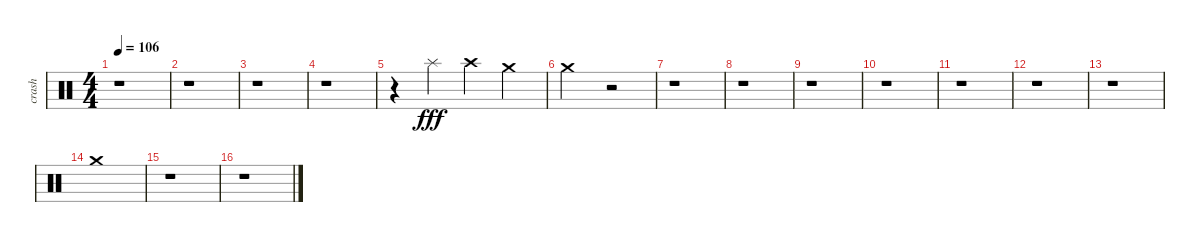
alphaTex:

\track ("crash" "crash") {instrument percussion}
\staff {score}
\articulation defaults
\ts (4 4)
\tempo 106
\clef neutral
\ks c
r.1{dy fff} |
r.1 |
r.1 |
r.1 |
r.4 "Splash (hit)".4 "Crash high (hit)".4 "Crash medium (hit)".4 |
"Crash medium (hit)".2 r.2 |
r.1 |
r.1 |
r.1 |
r.1 |
r.1 |
r.1 |
r.1 |
"Crash medium (hit)".1 |
r.1 |
r.1
